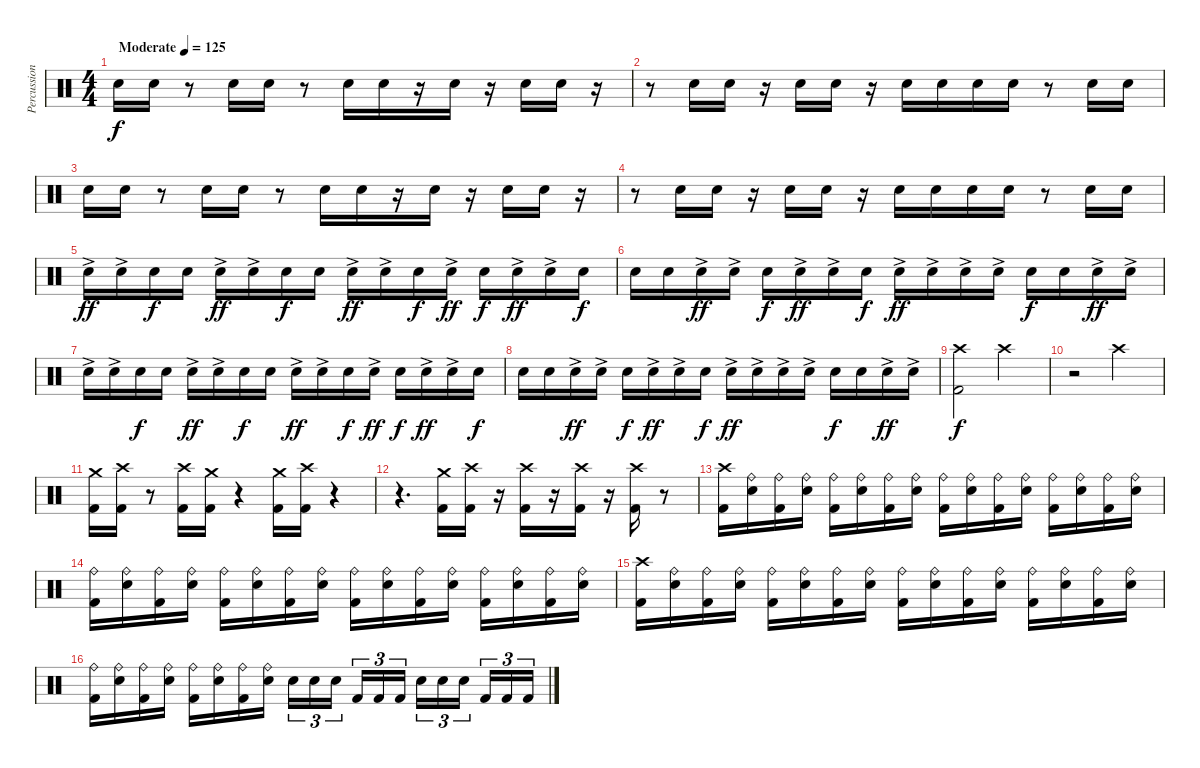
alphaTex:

\track ("Percussion" "Percussion") {instrument percussion}
\staff {score}
\articulation defaults
\ts (4 4)
\tempo (125 "Moderate")
\clef neutral
\ks c "Snare (hit) 2".16{dy f} "Snare (hit) 2".16
r.8 "Snare (hit) 2".16 "Snare (hit) 2".16 r.8 "Snare (hit) 2".16 "Snare (hit) 2".16 r.16 "Snare (hit) 2".16 r.16 "Snare (hit) 2".16 "Snare (hit) 2".16 r.16 |
r.8 "Snare (hit) 2".16 "Snare (hit) 2".16 r.16 "Snare (hit) 2".16 "Snare (hit) 2".16 r.16 "Snare (hit) 2".16 "Snare (hit) 2".16 "Snare (hit) 2".16 "Snare (hit) 2".16 r.8 "Snare (hit) 2".16 "Snare (hit) 2".16 |
"Snare (hit) 2".16 "Snare (hit) 2".16 r.8 "Snare (hit) 2".16 "Snare (hit) 2".16 r.8 "Snare (hit) 2".16 "Snare (hit) 2".16 r.16 "Snare (hit) 2".16 r.16 "Snare (hit) 2".16 "Snare (hit) 2".16 r.16 |
r.8 "Snare (hit) 2".16 "Snare (hit) 2".16 r.16 "Snare (hit) 2".16 "Snare (hit) 2".16 r.16 "Snare (hit) 2".16 "Snare (hit) 2".16 "Snare (hit) 2".16 "Snare (hit) 2".16 r.8 "Snare (hit) 2".16 "Snare (hit) 2".16 |
"Snare (hit) 2"{ac}.16{dy ff} "Snare (hit) 2"{ac}.16 "Snare (hit) 2".16{dy f} "Snare (hit) 2".16 "Snare (hit) 2"{ac}.16{dy ff} "Snare (hit) 2"{ac}.16 "Snare (hit) 2".16{dy f} "Snare (hit) 2".16 "Snare (hit) 2"{ac}.16{dy ff} "Snare (hit) 2"{ac}.16 "Snare (hit) 2".16{dy f} "Snare (hit) 2"{ac}.16{dy ff} "Snare (hit) 2".16{dy f} "Snare (hit) 2"{ac}.16{dy ff} "Snare (hit) 2"{ac}.16 "Snare (hit) 2".16{dy f} |
"Snare (hit) 2".16 "Snare (hit) 2".16 "Snare (hit) 2"{ac}.16{dy ff} "Snare (hit) 2"{ac}.16 "Snare (hit) 2".16{dy f} "Snare (hit) 2"{ac}.16{dy ff} "Snare (hit) 2"{ac}.16 "Snare (hit) 2".16{dy f} "Snare (hit) 2"{ac}.16{dy ff} "Snare (hit) 2"{ac}.16 "Snare (hit) 2"{ac}.16 "Snare (hit) 2"{ac}.16 "Snare (hit) 2".16{dy f} "Snare (hit) 2".16 "Snare (hit) 2"{ac}.16{dy ff} "Snare (hit) 2"{ac}.16 |
"Snare (hit) 2"{ac}.16 "Snare (hit) 2"{ac}.16 "Snare (hit) 2".16{dy f} "Snare (hit) 2".16 "Snare (hit) 2"{ac}.16{dy ff} "Snare (hit) 2"{ac}.16 "Snare (hit) 2".16{dy f} "Snare (hit) 2".16 "Snare (hit) 2"{ac}.16{dy ff} "Snare (hit) 2"{ac}.16 "Snare (hit) 2".16{dy f} "Snare (hit) 2"{ac}.16{dy ff} "Snare (hit) 2".16{dy f} "Snare (hit) 2"{ac}.16{dy ff} "Snare (hit) 2"{ac}.16 "Snare (hit) 2".16{dy f} |
"Snare (hit) 2".16 "Snare (hit) 2".16 "Snare (hit) 2"{ac}.16{dy ff} "Snare (hit) 2"{ac}.16 "Snare (hit) 2".16{dy f} "Snare (hit) 2"{ac}.16{dy ff} "Snare (hit) 2"{ac}.16 "Snare (hit) 2".16{dy f} "Snare (hit) 2"{ac}.16{dy ff} "Snare (hit) 2"{ac}.16 "Snare (hit) 2"{ac}.16 "Snare (hit) 2"{ac}.16 "Snare (hit) 2".16{dy f} "Snare (hit) 2".16 "Snare (hit) 2"{ac}.16{dy ff} "Snare (hit) 2"{ac}.16 |
("Crash high (hit)" "Kick (hit) 2").2{dy f} "Crash high (hit)".2 |
r.2 "Crash high (hit)".2 |
("Crash medium (hit)" "Kick (hit) 2").16 ("Crash high (hit)" "Kick (hit) 2").16 r.8 ("Crash high (hit)" "Kick (hit) 2").16 ("Crash medium (hit)" "Kick (hit) 2").16 r.4 ("Crash medium (hit)" "Kick (hit) 2").16 ("Crash high (hit)" "Kick (hit) 2").16 r.4 |
r.4{d} ("Crash medium (hit)" "Kick (hit) 2").16 ("Crash high (hit)" "Kick (hit) 2").16 r.16 ("Crash high (hit)" "Kick (hit) 2").16 r.16 ("Crash high (hit)" "Kick (hit) 2").16 r.16 ("Crash high (hit)" "Kick (hit) 2").16 r.8 |
("Crash high (hit)" "Kick (hit) 2").16 ("Ride (bell)" "Snare (hit) 2").16 ("Ride (bell)" "Kick (hit) 2").16 ("Ride (bell)" "Snare (hit) 2").16 ("Ride (bell)" "Kick (hit) 2").16 ("Ride (bell)" "Snare (hit) 2").16 ("Ride (bell)" "Kick (hit) 2").16 ("Ride (bell)" "Snare (hit) 2").16 ("Ride (bell)" "Kick (hit) 2").16 ("Ride (bell)" "Snare (hit) 2").16 ("Ride (bell)" "Kick (hit) 2").16 ("Ride (bell)" "Snare (hit) 2").16 ("Ride (bell)" "Kick (hit) 2").16 ("Ride (bell)" "Snare (hit) 2").16 ("Ride (bell)" "Kick (hit) 2").16 ("Ride (bell)" "Snare (hit) 2").16 |
("Ride (bell)" "Kick (hit) 2").16 ("Ride (bell)" "Snare (hit) 2").16 ("Ride (bell)" "Kick (hit) 2").16 ("Ride (bell)" "Snare (hit) 2").16 ("Ride (bell)" "Kick (hit) 2").16 ("Ride (bell)" "Snare (hit) 2").16 ("Ride (bell)" "Kick (hit) 2").16 ("Ride (bell)" "Snare (hit) 2").16 ("Ride (bell)" "Kick (hit) 2").16 ("Ride (bell)" "Snare (hit) 2").16 ("Ride (bell)" "Kick (hit) 2").16 ("Ride (bell)" "Snare (hit) 2").16 ("Ride (bell)" "Kick (hit) 2").16 ("Ride (bell)" "Snare (hit) 2").16 ("Ride (bell)" "Kick (hit) 2").16 ("Ride (bell)" "Snare (hit) 2").16 |
("Crash high (hit)" "Kick (hit) 2").16 ("Ride (bell)" "Snare (hit) 2").16 ("Ride (bell)" "Kick (hit) 2").16 ("Ride (bell)" "Snare (hit) 2").16 ("Ride (bell)" "Kick (hit) 2").16 ("Ride (bell)" "Snare (hit) 2").16 ("Ride (bell)" "Kick (hit) 2").16 ("Ride (bell)" "Snare (hit) 2").16 ("Ride (bell)" "Kick (hit) 2").16 ("Ride (bell)" "Snare (hit) 2").16 ("Ride (bell)" "Kick (hit) 2").16 ("Ride (bell)" "Snare (hit) 2").16 ("Ride (bell)" "Kick (hit) 2").16 ("Ride (bell)" "Snare (hit) 2").16 ("Ride (bell)" "Kick (hit) 2").16 ("Ride (bell)" "Snare (hit) 2").16 |
("Ride (bell)" "Kick (hit) 2").16 ("Ride (bell)" "Snare (hit) 2").16 ("Ride (bell)" "Kick (hit) 2").16 ("Ride (bell)" "Snare (hit) 2").16 ("Ride (bell)" "Kick (hit) 2").16 ("Ride (bell)" "Snare (hit) 2").16 ("Ride (bell)" "Kick (hit) 2").16 ("Ride (bell)" "Snare (hit) 2").16 "Snare (hit) 2".16{tu (3 2)} "Snare (hit) 2".16{tu (3 2)} "Snare (hit) 2".16{tu (3 2) beam splitsecondary} "Kick (hit) 2".16{tu (3 2)} "Kick (hit) 2".16{tu (3 2)} "Kick (hit) 2".16{tu (3 2)} "Snare (hit) 2".16{tu (3 2)} "Snare (hit) 2".16{tu (3 2)} "Snare (hit) 2".16{tu (3 2) beam splitsecondary} "Kick (hit) 2".16{tu (3 2)} "Kick (hit) 2".16{tu (3 2)} "Kick (hit) 2".16{tu (3 2)}
